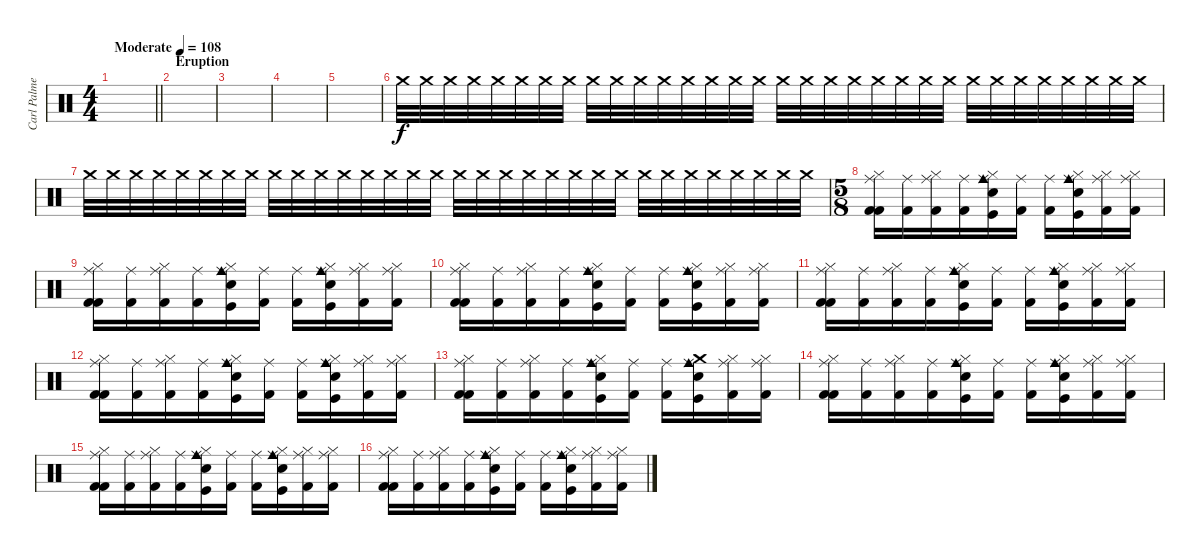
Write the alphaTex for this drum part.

\track ("Carl Palmer (Percussion)" "Carl Palme") {instrument percussion}
\staff {score}
\articulation defaults
\ts (4 4)
\tempo (108 "Moderate")
\clef neutral
\barLineRight lightlight
\ks c
|
\section ("" "Eruption")
|
|
|
|
"Crash medium (hit)".32{volume 1 balance 4} "Crash medium (hit)".32{volume 1} "Crash medium (hit)".32{volume 2} "Crash medium (hit)".32{volume 2} "Crash medium (hit)".32{volume 3} "Crash medium (hit)".32{volume 3} "Crash medium (hit)".32{volume 4} "Crash medium (hit)".32{volume 4} "Crash medium (hit)".32{volume 5} "Crash medium (hit)".32{volume 5} "Crash medium (hit)".32{volume 6} "Crash medium (hit)".32{volume 6} "Crash medium (hit)".32{volume 7} "Crash medium (hit)".32{volume 7} "Crash medium (hit)".32{volume 8} "Crash medium (hit)".32{volume 8} "Crash medium (hit)".32{volume 9 balance 5} "Crash medium (hit)".32{volume 9} "Crash medium (hit)".32{volume 10} "Crash medium (hit)".32{volume 10} "Crash medium (hit)".32{volume 11 balance 6} "Crash medium (hit)".32{volume 11} "Crash medium (hit)".32{volume 12} "Crash medium (hit)".32{volume 12} "Crash medium (hit)".32{volume 13 balance 7} "Crash medium (hit)".32{volume 13} "Crash medium (hit)".32{volume 14} "Crash medium (hit)".32{volume 14 balance 8} "Crash medium (hit)".32{volume 15} "Crash medium (hit)".32{volume 15} "Crash medium (hit)".32{volume 16} "Crash medium (hit)".32{volume 16} |
"Crash medium (hit)".32 "Crash medium (hit)".32 "Crash medium (hit)".32 "Crash medium (hit)".32 "Crash medium (hit)".32 "Crash medium (hit)".32 "Crash medium (hit)".32 "Crash medium (hit)".32 "Crash medium (hit)".32 "Crash medium (hit)".32 "Crash medium (hit)".32 "Crash medium (hit)".32 "Crash medium (hit)".32 "Crash medium (hit)".32 "Crash medium (hit)".32 "Crash medium (hit)".32 "Crash medium (hit)".32 "Crash medium (hit)".32 "Crash medium (hit)".32 "Crash medium (hit)".32 "Crash medium (hit)".32 "Crash medium (hit)".32 "Crash medium (hit)".32 "Crash medium (hit)".32 "Crash medium (hit)".32 "Crash medium (hit)".32 "Crash medium (hit)".32 "Crash medium (hit)".32 "Crash medium (hit)".32 "Crash medium (hit)".32 "Crash medium (hit)".32 "Crash medium (hit)".32 |
\ts (5 8)
("Hi-Hat (closed)" "Kick (hit) 2" "Kick (hit) 2" "Ride (middle)").16 ("Ride (middle)" "Kick (hit) 2").16 ("Hi-Hat (closed)" "Ride (middle)" "Kick (hit) 2").16 ("Ride (middle)" "Kick (hit) 2").16 ("Hi-Hat (closed)" "Electric Snare (hit)" "Kick (hit)" "Cowbell medium (hit)" "Ride (middle)").16 ("Ride (middle)" "Kick (hit) 2").16 ("Ride (middle)" "Kick (hit) 2").16 ("Hi-Hat (closed)" "Snare (hit) 2" "Kick (hit)" "Cowbell medium (hit)" "Ride (middle)").16 ("Hi-Hat (closed)" "Ride (middle)" "Kick (hit) 2").16 ("Hi-Hat (closed)" "Ride (middle)" "Kick (hit) 2").16 |
("Hi-Hat (closed)" "Kick (hit) 2" "Kick (hit) 2" "Ride (middle)").16 ("Ride (middle)" "Kick (hit) 2").16 ("Hi-Hat (closed)" "Ride (middle)" "Kick (hit) 2").16 ("Ride (middle)" "Kick (hit) 2").16 ("Hi-Hat (closed)" "Electric Snare (hit)" "Kick (hit)" "Cowbell medium (hit)" "Ride (middle)").16 ("Ride (middle)" "Kick (hit) 2").16 ("Ride (middle)" "Kick (hit) 2").16 ("Hi-Hat (closed)" "Snare (hit) 2" "Kick (hit)" "Cowbell medium (hit)" "Ride (middle)").16 ("Hi-Hat (closed)" "Ride (middle)" "Kick (hit) 2").16 ("Hi-Hat (closed)" "Ride (middle)" "Kick (hit) 2").16 |
("Hi-Hat (closed)" "Kick (hit) 2" "Kick (hit) 2" "Ride (middle)").16 ("Ride (middle)" "Kick (hit) 2").16 ("Hi-Hat (closed)" "Ride (middle)" "Kick (hit) 2").16 ("Ride (middle)" "Kick (hit) 2").16 ("Hi-Hat (closed)" "Electric Snare (hit)" "Kick (hit)" "Cowbell medium (hit)" "Ride (middle)").16 ("Ride (middle)" "Kick (hit) 2").16 ("Ride (middle)" "Kick (hit) 2").16 ("Hi-Hat (closed)" "Snare (hit) 2" "Kick (hit)" "Cowbell medium (hit)" "Ride (middle)").16 ("Hi-Hat (closed)" "Ride (middle)" "Kick (hit) 2").16 ("Hi-Hat (closed)" "Ride (middle)" "Kick (hit) 2").16 |
("Hi-Hat (closed)" "Kick (hit) 2" "Kick (hit) 2" "Ride (middle)").16 ("Ride (middle)" "Kick (hit) 2").16 ("Hi-Hat (closed)" "Ride (middle)" "Kick (hit) 2").16 ("Ride (middle)" "Kick (hit) 2").16 ("Hi-Hat (closed)" "Electric Snare (hit)" "Kick (hit)" "Cowbell medium (hit)" "Ride (middle)").16 ("Ride (middle)" "Kick (hit) 2").16 ("Ride (middle)" "Kick (hit) 2").16 ("Hi-Hat (closed)" "Snare (hit) 2" "Kick (hit)" "Cowbell medium (hit)" "Ride (middle)").16 ("Hi-Hat (closed)" "Ride (middle)" "Kick (hit) 2").16 ("Hi-Hat (closed)" "Ride (middle)" "Kick (hit) 2").16 |
("Hi-Hat (closed)" "Kick (hit) 2" "Kick (hit) 2" "Ride (middle)").16 ("Ride (middle)" "Kick (hit) 2").16 ("Hi-Hat (closed)" "Ride (middle)" "Kick (hit) 2").16 ("Ride (middle)" "Kick (hit) 2").16 ("Hi-Hat (closed)" "Electric Snare (hit)" "Kick (hit)" "Cowbell medium (hit)" "Ride (middle)").16 ("Ride (middle)" "Kick (hit) 2").16 ("Ride (middle)" "Kick (hit) 2").16 ("Hi-Hat (closed)" "Snare (hit) 2" "Kick (hit)" "Cowbell medium (hit)" "Ride (middle)").16 ("Hi-Hat (closed)" "Ride (middle)" "Kick (hit) 2").16 ("Hi-Hat (closed)" "Ride (middle)" "Kick (hit) 2").16 |
("Hi-Hat (closed)" "Kick (hit) 2" "Kick (hit) 2" "Ride (middle)").16 ("Ride (middle)" "Kick (hit) 2").16 ("Hi-Hat (closed)" "Ride (middle)" "Kick (hit) 2").16 ("Ride (middle)" "Kick (hit) 2").16 ("Hi-Hat (closed)" "Electric Snare (hit)" "Kick (hit)" "Cowbell medium (hit)" "Ride (middle)").16 ("Ride (middle)" "Kick (hit) 2").16 ("Ride (middle)" "Kick (hit) 2").16 ("Crash medium (hit)" "Snare (hit) 2" "Kick (hit)" "Cowbell medium (hit)" "Ride (middle)").16 ("Hi-Hat (closed)" "Ride (middle)" "Kick (hit) 2").16 ("Hi-Hat (closed)" "Ride (middle)" "Kick (hit) 2").16 |
("Hi-Hat (closed)" "Kick (hit) 2" "Kick (hit) 2" "Ride (middle)").16 ("Ride (middle)" "Kick (hit) 2").16 ("Hi-Hat (closed)" "Ride (middle)" "Kick (hit) 2").16 ("Ride (middle)" "Kick (hit) 2").16 ("Hi-Hat (closed)" "Electric Snare (hit)" "Kick (hit)" "Cowbell medium (hit)" "Ride (middle)").16 ("Ride (middle)" "Kick (hit) 2").16 ("Ride (middle)" "Kick (hit) 2").16 ("Hi-Hat (closed)" "Snare (hit) 2" "Kick (hit)" "Cowbell medium (hit)" "Ride (middle)").16 ("Hi-Hat (closed)" "Ride (middle)" "Kick (hit) 2").16 ("Hi-Hat (closed)" "Ride (middle)" "Kick (hit) 2").16 |
("Hi-Hat (closed)" "Kick (hit) 2" "Kick (hit) 2" "Ride (middle)").16 ("Ride (middle)" "Kick (hit) 2").16 ("Hi-Hat (closed)" "Ride (middle)" "Kick (hit) 2").16 ("Ride (middle)" "Kick (hit) 2").16 ("Hi-Hat (closed)" "Electric Snare (hit)" "Kick (hit)" "Cowbell medium (hit)" "Ride (middle)").16 ("Ride (middle)" "Kick (hit) 2").16 ("Ride (middle)" "Kick (hit) 2").16 ("Hi-Hat (closed)" "Snare (hit) 2" "Kick (hit)" "Cowbell medium (hit)" "Ride (middle)").16 ("Hi-Hat (closed)" "Ride (middle)" "Kick (hit) 2").16 ("Hi-Hat (closed)" "Ride (middle)" "Kick (hit) 2").16 |
("Hi-Hat (closed)" "Kick (hit) 2" "Kick (hit) 2" "Ride (middle)").16 ("Ride (middle)" "Kick (hit) 2").16 ("Hi-Hat (closed)" "Ride (middle)" "Kick (hit) 2").16 ("Ride (middle)" "Kick (hit) 2").16 ("Hi-Hat (closed)" "Electric Snare (hit)" "Kick (hit)" "Cowbell medium (hit)" "Ride (middle)").16 ("Ride (middle)" "Kick (hit) 2").16 ("Ride (middle)" "Kick (hit) 2").16 ("Hi-Hat (closed)" "Snare (hit) 2" "Kick (hit)" "Cowbell medium (hit)" "Ride (middle)").16 ("Hi-Hat (closed)" "Ride (middle)" "Kick (hit) 2").16 ("Hi-Hat (closed)" "Ride (middle)" "Kick (hit) 2").16
